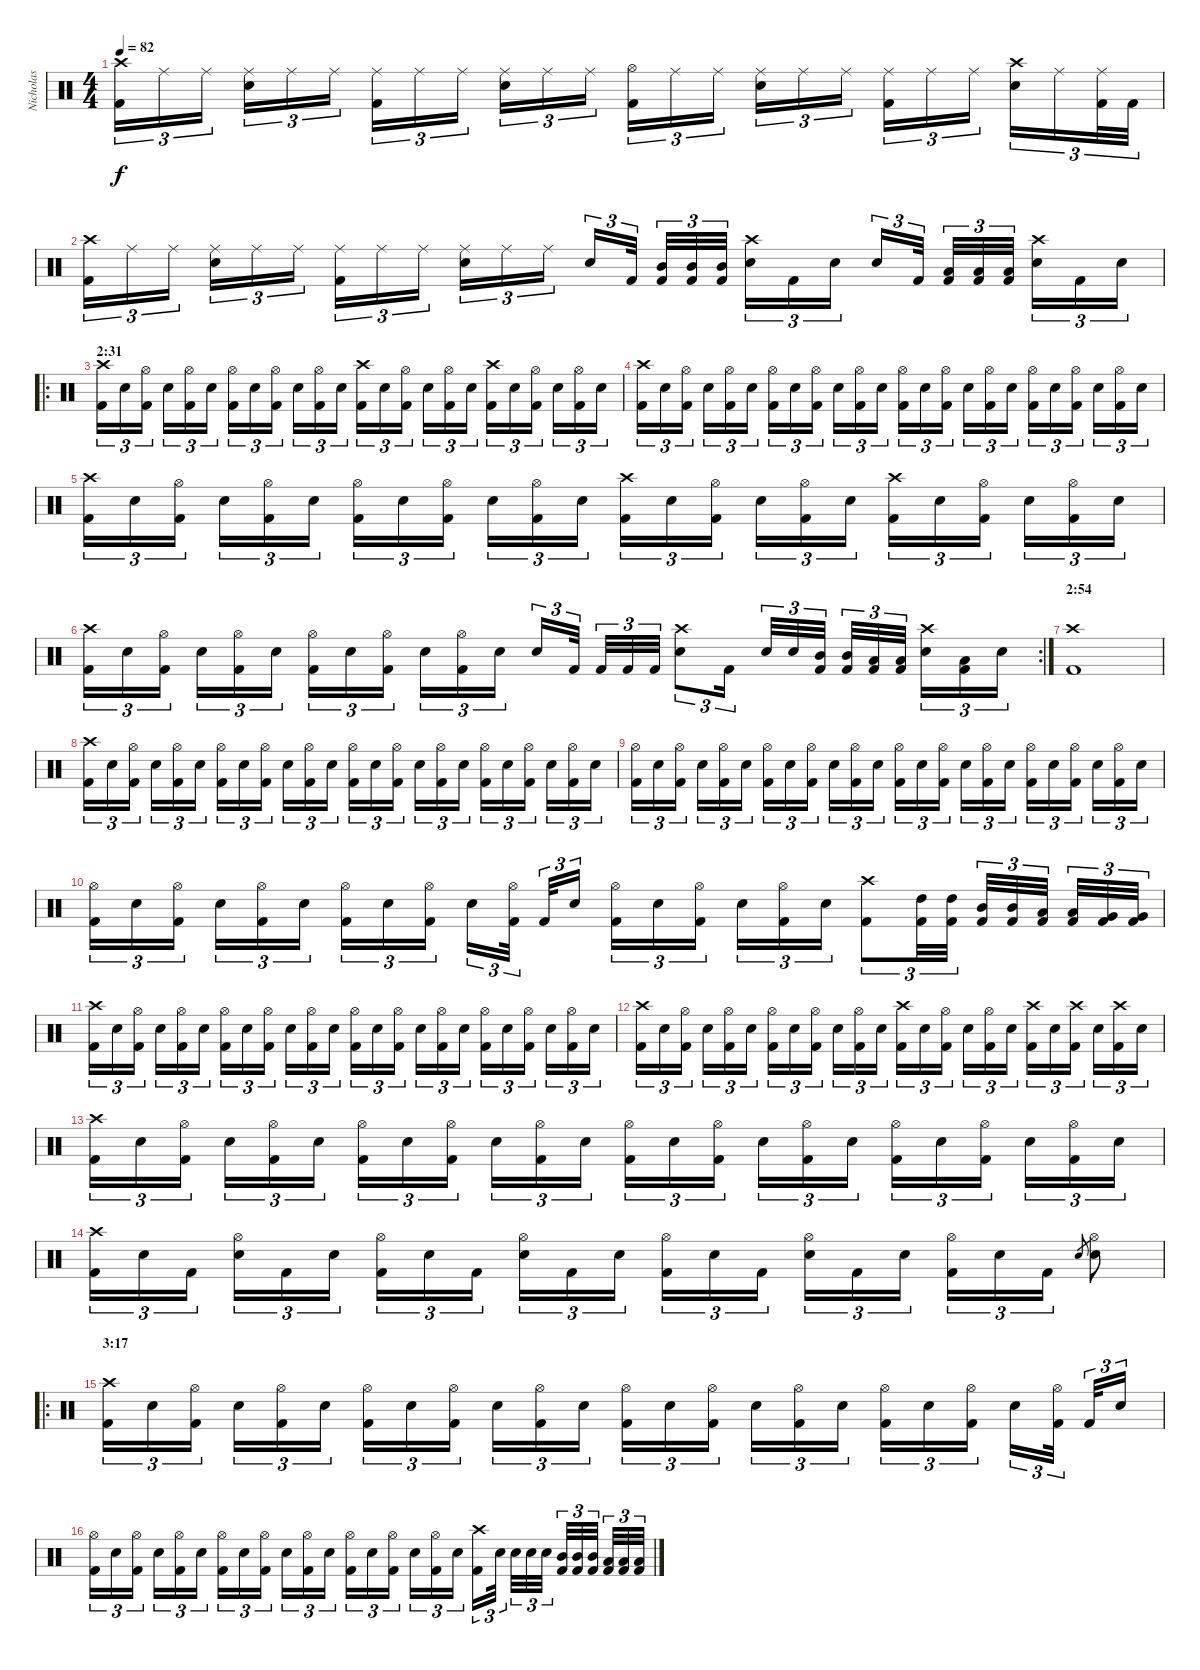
\track ("Nicholas" "Nicholas") {instrument percussion}
\staff {score}
\articulation defaults
\ts (4 4)
\tempo 82
\clef neutral
\ks c
("Kick (hit) 2" "Crash high (hit)").16{tu (3 2) dy f} "Ride (middle)".16{tu (3 2)} "Ride (middle)".16{tu (3 2)} ("Snare (hit) 2" "Ride (middle)").16{tu (3 2)} "Ride (middle)".16{tu (3 2)} "Ride (middle)".16{tu (3 2)} ("Kick (hit) 2" "Ride (middle)").16{tu (3 2)} "Ride (middle)".16{tu (3 2)} "Ride (middle)".16{tu (3 2)} ("Snare (hit) 2" "Ride (middle)").16{tu (3 2)} "Ride (middle)".16{tu (3 2)} "Ride (middle)".16{tu (3 2)} ("Kick (hit) 2" "Hi-Hat (open)").16{tu (3 2)} "Ride (middle)".16{tu (3 2)} "Ride (middle)".16{tu (3 2)} ("Snare (hit) 2" "Ride (middle)").16{tu (3 2)} "Ride (middle)".16{tu (3 2)} "Ride (middle)".16{tu (3 2)} ("Kick (hit) 2" "Ride (middle)").16{tu (3 2)} "Ride (middle)".16{tu (3 2)} "Ride (middle)".16{tu (3 2)} ("Snare (hit) 2" "Crash high (hit)").16{tu (3 2)} "Ride (middle)".16{tu (3 2)} ("Kick (hit) 2" "Ride (middle)").32{tu (3 2)} "Kick (hit) 2".32{tu (3 2)} |
("Kick (hit) 2" "Crash high (hit)").16{tu (3 2)} "Ride (middle)".16{tu (3 2)} "Ride (middle)".16{tu (3 2)} ("Snare (hit) 2" "Ride (middle)").16{tu (3 2)} "Ride (middle)".16{tu (3 2)} "Ride (middle)".16{tu (3 2)} ("Kick (hit) 2" "Ride (middle)").16{tu (3 2)} "Ride (middle)".16{tu (3 2)} "Ride (middle)".16{tu (3 2)} ("Snare (hit) 2" "Ride (middle)").16{tu (3 2)} "Ride (middle)".16{tu (3 2)} "Ride (middle)".16{tu (3 2)} "Snare (hit) 2".16{tu (3 2)} "Kick (hit) 2".32{tu (3 2)} ("Kick (hit) 2" "Mid Tom (hit)").32{tu (3 2)} ("Kick (hit) 2" "Mid Tom (hit)").32{tu (3 2)} ("Kick (hit) 2" "Mid Tom (hit)").32{tu (3 2)} ("Snare (hit) 2" "Crash high (hit)").16{tu (3 2)} "Kick (hit) 2".16{tu (3 2)} "Snare (hit) 2".16{tu (3 2)} "Snare (hit) 2".16{tu (3 2)} "Kick (hit) 2".32{tu (3 2)} ("Kick (hit) 2" "Low Tom (hit)").32{tu (3 2)} ("Kick (hit) 2" "Low Tom (hit)").32{tu (3 2)} ("Kick (hit) 2" "Low Tom (hit)").32{tu (3 2)} ("Snare (hit) 2" "Crash high (hit)").16{tu (3 2)} "Kick (hit) 2".16{tu (3 2)} "Snare (hit) 2".16{tu (3 2)} |
\ro
\section ("" "2:31")
("Kick (hit) 2" "Crash high (hit)").16{tu (3 2)} "Snare (hit) 2".16{tu (3 2)} ("Kick (hit) 2" "Hi-Hat (open)").16{tu (3 2)} "Snare (hit) 2".16{tu (3 2)} ("Kick (hit) 2" "Hi-Hat (open)").16{tu (3 2)} "Snare (hit) 2".16{tu (3 2)} ("Kick (hit) 2" "Hi-Hat (open)").16{tu (3 2)} "Snare (hit) 2".16{tu (3 2)} ("Kick (hit) 2" "Hi-Hat (open)").16{tu (3 2)} "Snare (hit) 2".16{tu (3 2)} ("Kick (hit) 2" "Hi-Hat (open)").16{tu (3 2)} "Snare (hit) 2".16{tu (3 2)} ("Kick (hit) 2" "Crash high (hit)").16{tu (3 2)} "Snare (hit) 2".16{tu (3 2)} ("Kick (hit) 2" "Hi-Hat (open)").16{tu (3 2)} "Snare (hit) 2".16{tu (3 2)} ("Kick (hit) 2" "Hi-Hat (open)").16{tu (3 2)} "Snare (hit) 2".16{tu (3 2)} ("Kick (hit) 2" "Crash high (hit)").16{tu (3 2)} "Snare (hit) 2".16{tu (3 2)} ("Kick (hit) 2" "Hi-Hat (open)").16{tu (3 2)} "Snare (hit) 2".16{tu (3 2)} ("Kick (hit) 2" "Hi-Hat (open)").16{tu (3 2)} "Snare (hit) 2".16{tu (3 2)} |
("Kick (hit) 2" "Crash high (hit)").16{tu (3 2)} "Snare (hit) 2".16{tu (3 2)} ("Kick (hit) 2" "Hi-Hat (open)").16{tu (3 2)} "Snare (hit) 2".16{tu (3 2)} ("Kick (hit) 2" "Hi-Hat (open)").16{tu (3 2)} "Snare (hit) 2".16{tu (3 2)} ("Kick (hit) 2" "Hi-Hat (open)").16{tu (3 2)} "Snare (hit) 2".16{tu (3 2)} ("Kick (hit) 2" "Hi-Hat (open)").16{tu (3 2)} "Snare (hit) 2".16{tu (3 2)} ("Kick (hit) 2" "Hi-Hat (open)").16{tu (3 2)} "Snare (hit) 2".16{tu (3 2)} ("Kick (hit) 2" "Hi-Hat (open)").16{tu (3 2)} "Snare (hit) 2".16{tu (3 2)} ("Kick (hit) 2" "Hi-Hat (open)").16{tu (3 2)} "Snare (hit) 2".16{tu (3 2)} ("Kick (hit) 2" "Hi-Hat (open)").16{tu (3 2)} "Snare (hit) 2".16{tu (3 2)} ("Kick (hit) 2" "Hi-Hat (open)").16{tu (3 2)} "Snare (hit) 2".16{tu (3 2)} ("Kick (hit) 2" "Hi-Hat (open)").16{tu (3 2)} "Snare (hit) 2".16{tu (3 2)} ("Kick (hit) 2" "Hi-Hat (open)").16{tu (3 2)} "Snare (hit) 2".16{tu (3 2)} |
("Kick (hit) 2" "Crash high (hit)").16{tu (3 2)} "Snare (hit) 2".16{tu (3 2)} ("Kick (hit) 2" "Hi-Hat (open)").16{tu (3 2)} "Snare (hit) 2".16{tu (3 2)} ("Kick (hit) 2" "Hi-Hat (open)").16{tu (3 2)} "Snare (hit) 2".16{tu (3 2)} ("Kick (hit) 2" "Hi-Hat (open)").16{tu (3 2)} "Snare (hit) 2".16{tu (3 2)} ("Kick (hit) 2" "Hi-Hat (open)").16{tu (3 2)} "Snare (hit) 2".16{tu (3 2)} ("Kick (hit) 2" "Hi-Hat (open)").16{tu (3 2)} "Snare (hit) 2".16{tu (3 2)} ("Kick (hit) 2" "Crash high (hit)").16{tu (3 2)} "Snare (hit) 2".16{tu (3 2)} ("Kick (hit) 2" "Hi-Hat (open)").16{tu (3 2)} "Snare (hit) 2".16{tu (3 2)} ("Kick (hit) 2" "Hi-Hat (open)").16{tu (3 2)} "Snare (hit) 2".16{tu (3 2)} ("Kick (hit) 2" "Crash high (hit)").16{tu (3 2)} "Snare (hit) 2".16{tu (3 2)} ("Kick (hit) 2" "Hi-Hat (open)").16{tu (3 2)} "Snare (hit) 2".16{tu (3 2)} ("Kick (hit) 2" "Hi-Hat (open)").16{tu (3 2)} "Snare (hit) 2".16{tu (3 2)} |
\rc 2
("Kick (hit) 2" "Crash high (hit)").16{tu (3 2)} "Snare (hit) 2".16{tu (3 2)} ("Kick (hit) 2" "Hi-Hat (open)").16{tu (3 2)} "Snare (hit) 2".16{tu (3 2)} ("Kick (hit) 2" "Hi-Hat (open)").16{tu (3 2)} "Snare (hit) 2".16{tu (3 2)} ("Kick (hit) 2" "Hi-Hat (open)").16{tu (3 2)} "Snare (hit) 2".16{tu (3 2)} ("Kick (hit) 2" "Hi-Hat (open)").16{tu (3 2)} "Snare (hit) 2".16{tu (3 2)} ("Kick (hit) 2" "Hi-Hat (open)").16{tu (3 2)} "Snare (hit) 2".16{tu (3 2)} "Snare (hit) 2".16{tu (3 2)} "Kick (hit) 2".32{tu (3 2)} "Kick (hit) 2".32{tu (3 2)} "Kick (hit) 2".32{tu (3 2)} "Kick (hit) 2".32{tu (3 2)} ("Snare (hit) 2" "Crash high (hit)").8{tu (3 2)} "Kick (hit) 2".16{tu (3 2)} "Snare (hit) 2".32{tu (3 2)} "Snare (hit) 2".32{tu (3 2)} ("Kick (hit) 2" "Mid Tom (hit)").32{tu (3 2)} ("Kick (hit) 2" "Mid Tom (hit)").32{tu (3 2)} ("Kick (hit) 2" "Low Tom (hit)").32{tu (3 2)} ("Kick (hit) 2" "Low Tom (hit)").32{tu (3 2)} ("Snare (hit) 2" "Crash high (hit)").16{tu (3 2)} ("Kick (hit) 2" "Low Tom (hit)").16{tu (3 2)} "Snare (hit) 2".16{tu (3 2)} |
\section ("" "2:54")
("Kick (hit) 2" "Crash high (hit)").1 |
("Kick (hit) 2" "Crash high (hit)").16{tu (3 2)} "Snare (hit) 2".16{tu (3 2)} ("Kick (hit) 2" "Hi-Hat (open)").16{tu (3 2)} "Snare (hit) 2".16{tu (3 2)} ("Kick (hit) 2" "Hi-Hat (open)").16{tu (3 2)} "Snare (hit) 2".16{tu (3 2)} ("Kick (hit) 2" "Hi-Hat (open)").16{tu (3 2)} "Snare (hit) 2".16{tu (3 2)} ("Kick (hit) 2" "Hi-Hat (open)").16{tu (3 2)} "Snare (hit) 2".16{tu (3 2)} ("Kick (hit) 2" "Hi-Hat (open)").16{tu (3 2)} "Snare (hit) 2".16{tu (3 2)} ("Kick (hit) 2" "Hi-Hat (open)").16{tu (3 2)} "Snare (hit) 2".16{tu (3 2)} ("Kick (hit) 2" "Hi-Hat (open)").16{tu (3 2)} "Snare (hit) 2".16{tu (3 2)} ("Kick (hit) 2" "Hi-Hat (open)").16{tu (3 2)} "Snare (hit) 2".16{tu (3 2)} ("Kick (hit) 2" "Hi-Hat (open)").16{tu (3 2)} "Snare (hit) 2".16{tu (3 2)} ("Kick (hit) 2" "Hi-Hat (open)").16{tu (3 2)} "Snare (hit) 2".16{tu (3 2)} ("Kick (hit) 2" "Hi-Hat (open)").16{tu (3 2)} "Snare (hit) 2".16{tu (3 2)} |
("Kick (hit) 2" "Hi-Hat (open)").16{tu (3 2)} "Snare (hit) 2".16{tu (3 2)} ("Kick (hit) 2" "Hi-Hat (open)").16{tu (3 2)} "Snare (hit) 2".16{tu (3 2)} ("Kick (hit) 2" "Hi-Hat (open)").16{tu (3 2)} "Snare (hit) 2".16{tu (3 2)} ("Kick (hit) 2" "Hi-Hat (open)").16{tu (3 2)} "Snare (hit) 2".16{tu (3 2)} ("Kick (hit) 2" "Hi-Hat (open)").16{tu (3 2)} "Snare (hit) 2".16{tu (3 2)} ("Kick (hit) 2" "Hi-Hat (open)").16{tu (3 2)} "Snare (hit) 2".16{tu (3 2)} ("Kick (hit) 2" "Hi-Hat (open)").16{tu (3 2)} "Snare (hit) 2".16{tu (3 2)} ("Kick (hit) 2" "Hi-Hat (open)").16{tu (3 2)} "Snare (hit) 2".16{tu (3 2)} ("Kick (hit) 2" "Hi-Hat (open)").16{tu (3 2)} "Snare (hit) 2".16{tu (3 2)} ("Kick (hit) 2" "Hi-Hat (open)").16{tu (3 2)} "Snare (hit) 2".16{tu (3 2)} ("Kick (hit) 2" "Hi-Hat (open)").16{tu (3 2)} "Snare (hit) 2".16{tu (3 2)} ("Kick (hit) 2" "Hi-Hat (open)").16{tu (3 2)} "Snare (hit) 2".16{tu (3 2)} |
("Kick (hit) 2" "Hi-Hat (open)").16{tu (3 2)} "Snare (hit) 2".16{tu (3 2)} ("Kick (hit) 2" "Hi-Hat (open)").16{tu (3 2)} "Snare (hit) 2".16{tu (3 2)} ("Kick (hit) 2" "Hi-Hat (open)").16{tu (3 2)} "Snare (hit) 2".16{tu (3 2)} ("Kick (hit) 2" "Hi-Hat (open)").16{tu (3 2)} "Snare (hit) 2".16{tu (3 2)} ("Kick (hit) 2" "Hi-Hat (open)").16{tu (3 2)} "Snare (hit) 2".16{tu (3 2)} ("Kick (hit) 2" "Hi-Hat (open)").32{tu (3 2)} "Kick (hit) 2".32{tu (3 2)} "Snare (hit) 2".16{tu (3 2)} ("Kick (hit) 2" "Hi-Hat (open)").16{tu (3 2)} "Snare (hit) 2".16{tu (3 2)} ("Kick (hit) 2" "Hi-Hat (open)").16{tu (3 2)} "Snare (hit) 2".16{tu (3 2)} ("Kick (hit) 2" "Hi-Hat (open)").16{tu (3 2)} "Snare (hit) 2".16{tu (3 2)} ("Kick (hit) 2" "Crash high (hit)").8{tu (3 2)} ("Kick (hit) 2" "High Tom (hit)").32{tu (3 2)} ("Kick (hit) 2" "High Tom (hit)").32{tu (3 2)} ("Kick (hit) 2" "Mid Tom (hit)").32{tu (3 2)} ("Kick (hit) 2" "Mid Tom (hit)").32{tu (3 2)} ("Kick (hit) 2" "Low Tom (hit)").32{tu (3 2)} ("Kick (hit) 2" "Low Tom (hit)").32{tu (3 2)} ("Kick (hit) 2" "Very Low Tom (hit)").32{tu (3 2)} ("Kick (hit) 2" "Very Low Tom (hit)").32{tu (3 2)} |
("Kick (hit) 2" "Crash high (hit)").16{tu (3 2)} "Snare (hit) 2".16{tu (3 2)} ("Kick (hit) 2" "Hi-Hat (open)").16{tu (3 2)} "Snare (hit) 2".16{tu (3 2)} ("Kick (hit) 2" "Hi-Hat (open)").16{tu (3 2)} "Snare (hit) 2".16{tu (3 2)} ("Kick (hit) 2" "Hi-Hat (open)").16{tu (3 2)} "Snare (hit) 2".16{tu (3 2)} ("Kick (hit) 2" "Hi-Hat (open)").16{tu (3 2)} "Snare (hit) 2".16{tu (3 2)} ("Kick (hit) 2" "Hi-Hat (open)").16{tu (3 2)} "Snare (hit) 2".16{tu (3 2)} ("Kick (hit) 2" "Hi-Hat (open)").16{tu (3 2)} "Snare (hit) 2".16{tu (3 2)} ("Kick (hit) 2" "Hi-Hat (open)").16{tu (3 2)} "Snare (hit) 2".16{tu (3 2)} ("Kick (hit) 2" "Hi-Hat (open)").16{tu (3 2)} "Snare (hit) 2".16{tu (3 2)} ("Kick (hit) 2" "Hi-Hat (open)").16{tu (3 2)} "Snare (hit) 2".16{tu (3 2)} ("Kick (hit) 2" "Hi-Hat (open)").16{tu (3 2)} "Snare (hit) 2".16{tu (3 2)} ("Kick (hit) 2" "Hi-Hat (open)").16{tu (3 2)} "Snare (hit) 2".16{tu (3 2)} |
("Kick (hit) 2" "Crash high (hit)").16{tu (3 2)} "Snare (hit) 2".16{tu (3 2)} ("Kick (hit) 2" "Hi-Hat (open)").16{tu (3 2)} "Snare (hit) 2".16{tu (3 2)} ("Kick (hit) 2" "Hi-Hat (open)").16{tu (3 2)} "Snare (hit) 2".16{tu (3 2)} ("Kick (hit) 2" "Hi-Hat (open)").16{tu (3 2)} "Snare (hit) 2".16{tu (3 2)} ("Kick (hit) 2" "Hi-Hat (open)").16{tu (3 2)} "Snare (hit) 2".16{tu (3 2)} ("Kick (hit) 2" "Hi-Hat (open)").16{tu (3 2)} "Snare (hit) 2".16{tu (3 2)} ("Kick (hit) 2" "Crash high (hit)").16{tu (3 2)} "Snare (hit) 2".16{tu (3 2)} ("Kick (hit) 2" "Hi-Hat (open)").16{tu (3 2)} "Snare (hit) 2".16{tu (3 2)} ("Kick (hit) 2" "Hi-Hat (open)").16{tu (3 2)} "Snare (hit) 2".16{tu (3 2)} ("Kick (hit) 2" "Crash high (hit)").16{tu (3 2)} "Snare (hit) 2".16{tu (3 2)} ("Kick (hit) 2" "Crash high (hit)").16{tu (3 2)} "Snare (hit) 2".16{tu (3 2)} ("Kick (hit) 2" "Crash high (hit)").16{tu (3 2)} "Snare (hit) 2".16{tu (3 2)} |
("Kick (hit) 2" "Crash high (hit)").16{tu (3 2)} "Snare (hit) 2".16{tu (3 2)} ("Kick (hit) 2" "Hi-Hat (open)").16{tu (3 2)} "Snare (hit) 2".16{tu (3 2)} ("Kick (hit) 2" "Hi-Hat (open)").16{tu (3 2)} "Snare (hit) 2".16{tu (3 2)} ("Kick (hit) 2" "Hi-Hat (open)").16{tu (3 2)} "Snare (hit) 2".16{tu (3 2)} ("Kick (hit) 2" "Hi-Hat (open)").16{tu (3 2)} "Snare (hit) 2".16{tu (3 2)} ("Kick (hit) 2" "Hi-Hat (open)").16{tu (3 2)} "Snare (hit) 2".16{tu (3 2)} ("Kick (hit) 2" "Hi-Hat (open)").16{tu (3 2)} "Snare (hit) 2".16{tu (3 2)} ("Kick (hit) 2" "Hi-Hat (open)").16{tu (3 2)} "Snare (hit) 2".16{tu (3 2)} ("Kick (hit) 2" "Hi-Hat (open)").16{tu (3 2)} "Snare (hit) 2".16{tu (3 2)} ("Kick (hit) 2" "Hi-Hat (open)").16{tu (3 2)} "Snare (hit) 2".16{tu (3 2)} ("Kick (hit) 2" "Hi-Hat (open)").16{tu (3 2)} "Snare (hit) 2".16{tu (3 2)} ("Kick (hit) 2" "Hi-Hat (open)").16{tu (3 2)} "Snare (hit) 2".16{tu (3 2)} |
("Kick (hit) 2" "Crash high (hit)").16{tu (3 2)} "Snare (hit) 2".16{tu (3 2)} "Kick (hit) 2".16{tu (3 2)} ("Snare (hit) 2" "Hi-Hat (open)").16{tu (3 2)} "Kick (hit) 2".16{tu (3 2)} "Snare (hit) 2".16{tu (3 2)} ("Kick (hit) 2" "Hi-Hat (open)").16{tu (3 2)} "Snare (hit) 2".16{tu (3 2)} "Kick (hit) 2".16{tu (3 2)} ("Snare (hit) 2" "Hi-Hat (open)").16{tu (3 2)} "Kick (hit) 2".16{tu (3 2)} "Snare (hit) 2".16{tu (3 2)} ("Kick (hit) 2" "Hi-Hat (open)").16{tu (3 2)} "Snare (hit) 2".16{tu (3 2)} "Kick (hit) 2".16{tu (3 2)} ("Snare (hit) 2" "Hi-Hat (open)").16{tu (3 2)} "Kick (hit) 2".16{tu (3 2)} "Snare (hit) 2".16{tu (3 2)} ("Kick (hit) 2" "Hi-Hat (open)").16{tu (3 2)} "Snare (hit) 2".16{tu (3 2)} "Kick (hit) 2".16{tu (3 2)} "Snare (hit) 2".8{gr} ("Snare (hit) 2" "Hi-Hat (open)").8 |
\ro
\section ("" "3:17")
("Kick (hit) 2" "Crash high (hit)").16{tu (3 2)} "Snare (hit) 2".16{tu (3 2)} ("Kick (hit) 2" "Hi-Hat (open)").16{tu (3 2)} "Snare (hit) 2".16{tu (3 2)} ("Kick (hit) 2" "Hi-Hat (open)").16{tu (3 2)} "Snare (hit) 2".16{tu (3 2)} ("Kick (hit) 2" "Hi-Hat (open)").16{tu (3 2)} "Snare (hit) 2".16{tu (3 2)} ("Kick (hit) 2" "Hi-Hat (open)").16{tu (3 2)} "Snare (hit) 2".16{tu (3 2)} ("Kick (hit) 2" "Hi-Hat (open)").16{tu (3 2)} "Snare (hit) 2".16{tu (3 2)} ("Kick (hit) 2" "Hi-Hat (open)").16{tu (3 2)} "Snare (hit) 2".16{tu (3 2)} ("Kick (hit) 2" "Hi-Hat (open)").16{tu (3 2)} "Snare (hit) 2".16{tu (3 2)} ("Kick (hit) 2" "Hi-Hat (open)").16{tu (3 2)} "Snare (hit) 2".16{tu (3 2)} ("Kick (hit) 2" "Hi-Hat (open)").16{tu (3 2)} "Snare (hit) 2".16{tu (3 2)} ("Kick (hit) 2" "Hi-Hat (open)").16{tu (3 2)} "Snare (hit) 2".16{tu (3 2)} ("Kick (hit) 2" "Hi-Hat (open)").32{tu (3 2)} "Kick (hit) 2".32{tu (3 2)} "Snare (hit) 2".16{tu (3 2)} |
("Kick (hit) 2" "Hi-Hat (open)").16{tu (3 2)} "Snare (hit) 2".16{tu (3 2)} ("Kick (hit) 2" "Hi-Hat (open)").16{tu (3 2)} "Snare (hit) 2".16{tu (3 2)} ("Kick (hit) 2" "Hi-Hat (open)").16{tu (3 2)} "Snare (hit) 2".16{tu (3 2)} ("Kick (hit) 2" "Hi-Hat (open)").16{tu (3 2)} "Snare (hit) 2".16{tu (3 2)} ("Kick (hit) 2" "Hi-Hat (open)").16{tu (3 2)} "Snare (hit) 2".16{tu (3 2)} ("Kick (hit) 2" "Hi-Hat (open)").16{tu (3 2)} "Snare (hit) 2".16{tu (3 2)} ("Kick (hit) 2" "Hi-Hat (open)").16{tu (3 2)} "Snare (hit) 2".16{tu (3 2)} ("Kick (hit) 2" "Hi-Hat (open)").16{tu (3 2)} "Snare (hit) 2".16{tu (3 2)} ("Kick (hit) 2" "Hi-Hat (open)").16{tu (3 2)} "Snare (hit) 2".16{tu (3 2)} ("Kick (hit) 2" "Crash high (hit)").16{tu (3 2)} "Snare (hit) 2".32{tu (3 2)} "Snare (hit) 2".32{tu (3 2)} "Snare (hit) 2".32{tu (3 2)} "Snare (hit) 2".32{tu (3 2)} ("Kick (hit) 2" "Mid Tom (hit)").32{tu (3 2)} ("Kick (hit) 2" "Mid Tom (hit)").32{tu (3 2)} ("Kick (hit) 2" "Mid Tom (hit)").32{tu (3 2)} ("Kick (hit) 2" "Low Tom (hit)").32{tu (3 2)} ("Kick (hit) 2" "Low Tom (hit)").32{tu (3 2)} ("Kick (hit) 2" "Low Tom (hit)").32{tu (3 2)}
